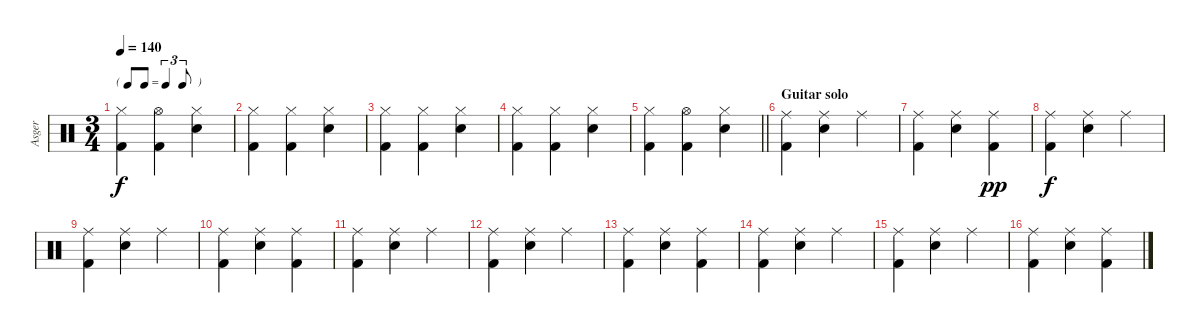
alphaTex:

\track ("Asger " "Asger ") {instrument percussion}
\staff {score}
\articulation defaults
\ts (3 4)
\tf triplet8th
\tempo 140
\clef neutral
\ks c
("Hi-Hat (closed)" "Kick (hit) 2").4{dy f} ("Hi-Hat (open)" "Kick (hit) 2").4 ("Hi-Hat (closed)" "Snare (hit) 2").4 |
("Hi-Hat (closed)" "Kick (hit) 2").4 ("Hi-Hat (closed)" "Kick (hit) 2").4 ("Hi-Hat (closed)" "Snare (hit) 2").4 |
("Hi-Hat (closed)" "Kick (hit) 2").4 ("Hi-Hat (closed)" "Kick (hit) 2").4 ("Hi-Hat (closed)" "Snare (hit) 2").4 |
("Hi-Hat (closed)" "Kick (hit) 2").4 ("Hi-Hat (closed)" "Kick (hit) 2").4 ("Hi-Hat (closed)" "Snare (hit) 2").4 |
\barLineRight lightlight
("Hi-Hat (closed)" "Kick (hit) 2").4 ("Hi-Hat (open)" "Kick (hit) 2").4 ("Hi-Hat (closed)" "Snare (hit) 2").4 |
\section ("" "Guitar solo")
("Ride (middle)" "Kick (hit) 2").4 ("Ride (middle)" "Snare (hit) 2").4 "Ride (middle)".4 |
("Ride (middle)" "Kick (hit) 2").4 ("Ride (middle)" "Snare (hit) 2").4 ("Ride (middle)" "Kick (hit) 2").4{dy pp} |
("Ride (middle)" "Kick (hit) 2").4{dy f} ("Ride (middle)" "Snare (hit) 2").4 "Ride (middle)".4 |
("Ride (middle)" "Kick (hit) 2").4 ("Ride (middle)" "Snare (hit) 2").4 "Ride (middle)".4 |
("Ride (middle)" "Kick (hit) 2").4 ("Ride (middle)" "Snare (hit) 2").4 ("Ride (middle)" "Kick (hit) 2").4 |
("Ride (middle)" "Kick (hit) 2").4 ("Ride (middle)" "Snare (hit) 2").4 "Ride (middle)".4 |
("Ride (middle)" "Kick (hit) 2").4 ("Ride (middle)" "Snare (hit) 2").4 "Ride (middle)".4 |
("Ride (middle)" "Kick (hit) 2").4 ("Ride (middle)" "Snare (hit) 2").4 ("Ride (middle)" "Kick (hit) 2").4 |
("Ride (middle)" "Kick (hit) 2").4 ("Ride (middle)" "Snare (hit) 2").4 "Ride (middle)".4 |
("Ride (middle)" "Kick (hit) 2").4 ("Ride (middle)" "Snare (hit) 2").4 "Ride (middle)".4 |
("Ride (middle)" "Kick (hit) 2").4 ("Ride (middle)" "Snare (hit) 2").4 ("Ride (middle)" "Kick (hit) 2").4
